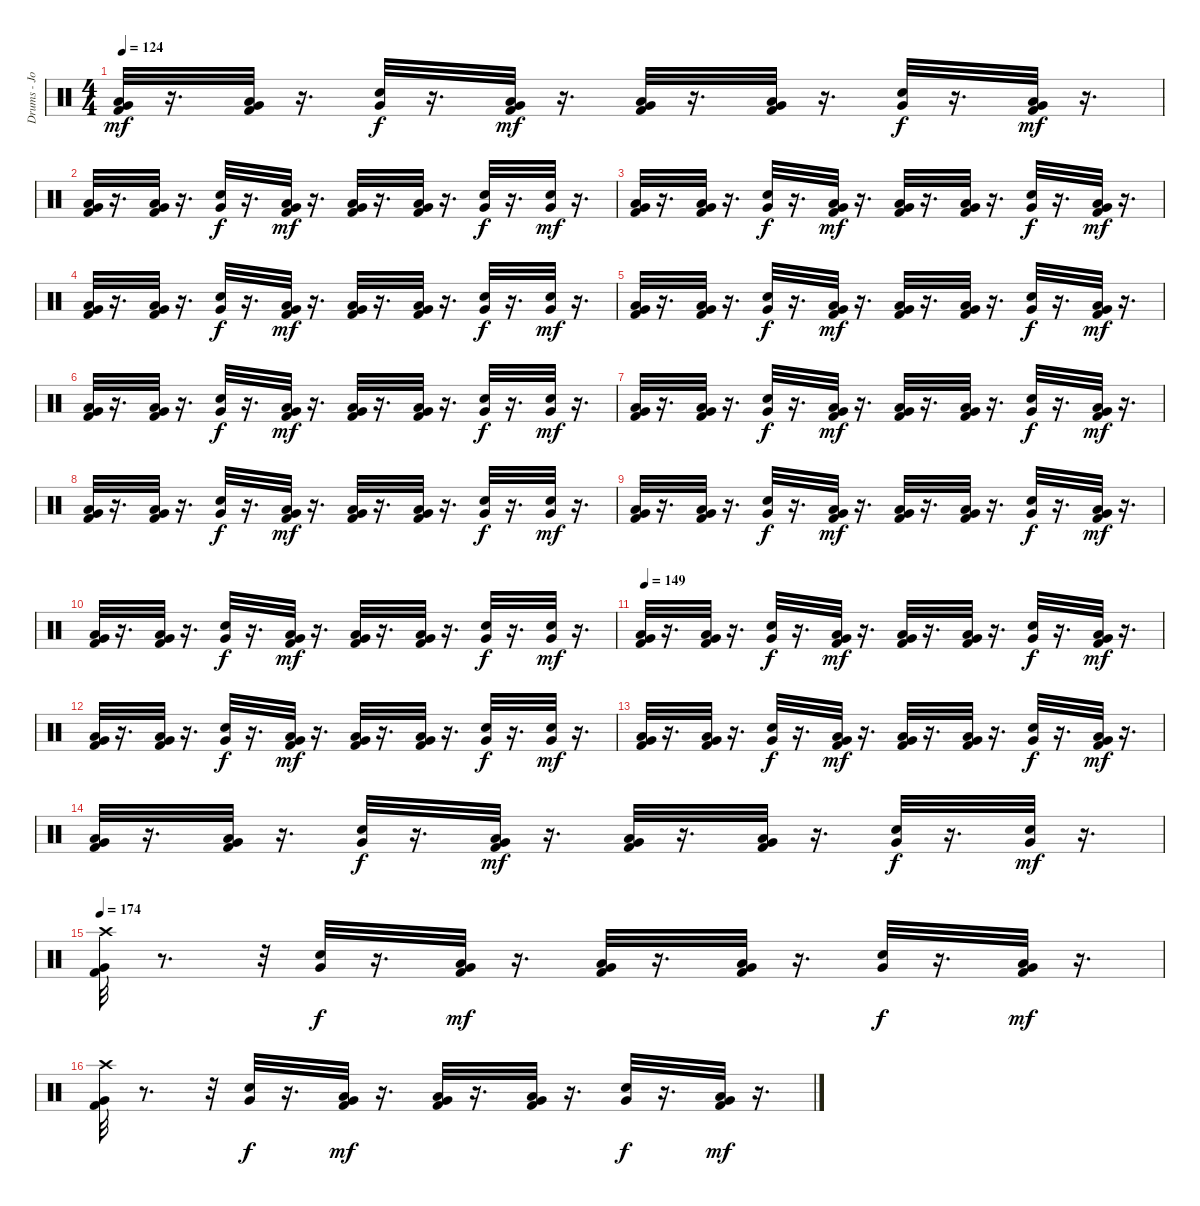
\track ("Drums - John dette" "Drums - Jo") {instrument percussion}
\staff {score}
\articulation defaults
\ts (4 4)
\tempo 124
\clef neutral
\ks c
("Kick (hit) 2" "Low Floor Tom (hit)" "Very Low Tom (hit)").32{dy mf} r.16{d} ("Kick (hit) 2" "Low Floor Tom (hit)" "Very Low Tom (hit)").32 r.16{d} ("Snare (hit) 2" "Very Low Tom (hit)").32{dy f} r.16{d} ("Kick (hit) 2" "Low Floor Tom (hit)" "Very Low Tom (hit)").32{dy mf} r.16{d} ("Kick (hit) 2" "Low Floor Tom (hit)" "Very Low Tom (hit)").32 r.16{d} ("Kick (hit) 2" "Low Floor Tom (hit)" "Very Low Tom (hit)").32 r.16{d} ("Snare (hit) 2" "Very Low Tom (hit)").32{dy f} r.16{d} ("Kick (hit) 2" "Low Floor Tom (hit)" "Very Low Tom (hit)").32{dy mf} r.16{d} |
("Kick (hit) 2" "Low Floor Tom (hit)" "Very Low Tom (hit)").32 r.16{d} ("Kick (hit) 2" "Low Floor Tom (hit)" "Very Low Tom (hit)").32 r.16{d} ("Snare (hit) 2" "Very Low Tom (hit)").32{dy f} r.16{d} ("Kick (hit) 2" "Low Floor Tom (hit)" "Very Low Tom (hit)").32{dy mf} r.16{d} ("Kick (hit) 2" "Low Floor Tom (hit)" "Very Low Tom (hit)").32 r.16{d} ("Kick (hit) 2" "Low Floor Tom (hit)" "Very Low Tom (hit)").32 r.16{d} ("Snare (hit) 2" "Very Low Tom (hit)").32{dy f} r.16{d} ("Snare (hit) 2" "Very Low Tom (hit)").32{dy mf} r.16{d} |
("Kick (hit) 2" "Low Floor Tom (hit)" "Very Low Tom (hit)").32 r.16{d} ("Kick (hit) 2" "Low Floor Tom (hit)" "Very Low Tom (hit)").32 r.16{d} ("Snare (hit) 2" "Very Low Tom (hit)").32{dy f} r.16{d} ("Kick (hit) 2" "Low Floor Tom (hit)" "Very Low Tom (hit)").32{dy mf} r.16{d} ("Kick (hit) 2" "Low Floor Tom (hit)" "Very Low Tom (hit)").32 r.16{d} ("Kick (hit) 2" "Low Floor Tom (hit)" "Very Low Tom (hit)").32 r.16{d} ("Snare (hit) 2" "Very Low Tom (hit)").32{dy f} r.16{d} ("Kick (hit) 2" "Low Floor Tom (hit)" "Very Low Tom (hit)").32{dy mf} r.16{d} |
("Kick (hit) 2" "Low Floor Tom (hit)" "Very Low Tom (hit)").32 r.16{d} ("Kick (hit) 2" "Low Floor Tom (hit)" "Very Low Tom (hit)").32 r.16{d} ("Snare (hit) 2" "Very Low Tom (hit)").32{dy f} r.16{d} ("Kick (hit) 2" "Low Floor Tom (hit)" "Very Low Tom (hit)").32{dy mf} r.16{d} ("Kick (hit) 2" "Low Floor Tom (hit)" "Very Low Tom (hit)").32 r.16{d} ("Kick (hit) 2" "Low Floor Tom (hit)" "Very Low Tom (hit)").32 r.16{d} ("Snare (hit) 2" "Very Low Tom (hit)").32{dy f} r.16{d} ("Snare (hit) 2" "Very Low Tom (hit)").32{dy mf} r.16{d} |
("Kick (hit) 2" "Low Floor Tom (hit)" "Very Low Tom (hit)").32 r.16{d} ("Kick (hit) 2" "Low Floor Tom (hit)" "Very Low Tom (hit)").32 r.16{d} ("Snare (hit) 2" "Very Low Tom (hit)").32{dy f} r.16{d} ("Kick (hit) 2" "Low Floor Tom (hit)" "Very Low Tom (hit)").32{dy mf} r.16{d} ("Kick (hit) 2" "Low Floor Tom (hit)" "Very Low Tom (hit)").32 r.16{d} ("Kick (hit) 2" "Low Floor Tom (hit)" "Very Low Tom (hit)").32 r.16{d} ("Snare (hit) 2" "Very Low Tom (hit)").32{dy f} r.16{d} ("Kick (hit) 2" "Low Floor Tom (hit)" "Very Low Tom (hit)").32{dy mf} r.16{d} |
("Kick (hit) 2" "Low Floor Tom (hit)" "Very Low Tom (hit)").32 r.16{d} ("Kick (hit) 2" "Low Floor Tom (hit)" "Very Low Tom (hit)").32 r.16{d} ("Snare (hit) 2" "Very Low Tom (hit)").32{dy f} r.16{d} ("Kick (hit) 2" "Low Floor Tom (hit)" "Very Low Tom (hit)").32{dy mf} r.16{d} ("Kick (hit) 2" "Low Floor Tom (hit)" "Very Low Tom (hit)").32 r.16{d} ("Kick (hit) 2" "Low Floor Tom (hit)" "Very Low Tom (hit)").32 r.16{d} ("Snare (hit) 2" "Very Low Tom (hit)").32{dy f} r.16{d} ("Snare (hit) 2" "Very Low Tom (hit)").32{dy mf} r.16{d} |
("Kick (hit) 2" "Low Floor Tom (hit)" "Very Low Tom (hit)").32 r.16{d} ("Kick (hit) 2" "Low Floor Tom (hit)" "Very Low Tom (hit)").32 r.16{d} ("Snare (hit) 2" "Very Low Tom (hit)").32{dy f} r.16{d} ("Kick (hit) 2" "Low Floor Tom (hit)" "Very Low Tom (hit)").32{dy mf} r.16{d} ("Kick (hit) 2" "Low Floor Tom (hit)" "Very Low Tom (hit)").32 r.16{d} ("Kick (hit) 2" "Low Floor Tom (hit)" "Very Low Tom (hit)").32 r.16{d} ("Snare (hit) 2" "Very Low Tom (hit)").32{dy f} r.16{d} ("Kick (hit) 2" "Low Floor Tom (hit)" "Very Low Tom (hit)").32{dy mf} r.16{d} |
("Kick (hit) 2" "Low Floor Tom (hit)" "Very Low Tom (hit)").32 r.16{d} ("Kick (hit) 2" "Low Floor Tom (hit)" "Very Low Tom (hit)").32 r.16{d} ("Snare (hit) 2" "Very Low Tom (hit)").32{dy f} r.16{d} ("Kick (hit) 2" "Low Floor Tom (hit)" "Very Low Tom (hit)").32{dy mf} r.16{d} ("Kick (hit) 2" "Low Floor Tom (hit)" "Very Low Tom (hit)").32 r.16{d} ("Kick (hit) 2" "Low Floor Tom (hit)" "Very Low Tom (hit)").32 r.16{d} ("Snare (hit) 2" "Very Low Tom (hit)").32{dy f} r.16{d} ("Snare (hit) 2" "Very Low Tom (hit)").32{dy mf} r.16{d} |
("Kick (hit) 2" "Low Floor Tom (hit)" "Very Low Tom (hit)").32 r.16{d} ("Kick (hit) 2" "Low Floor Tom (hit)" "Very Low Tom (hit)").32 r.16{d} ("Snare (hit) 2" "Very Low Tom (hit)").32{dy f} r.16{d} ("Kick (hit) 2" "Low Floor Tom (hit)" "Very Low Tom (hit)").32{dy mf} r.16{d} ("Kick (hit) 2" "Low Floor Tom (hit)" "Very Low Tom (hit)").32 r.16{d} ("Kick (hit) 2" "Low Floor Tom (hit)" "Very Low Tom (hit)").32 r.16{d} ("Snare (hit) 2" "Very Low Tom (hit)").32{dy f} r.16{d} ("Kick (hit) 2" "Low Floor Tom (hit)" "Very Low Tom (hit)").32{dy mf} r.16{d} |
("Kick (hit) 2" "Low Floor Tom (hit)" "Very Low Tom (hit)").32 r.16{d} ("Kick (hit) 2" "Low Floor Tom (hit)" "Very Low Tom (hit)").32 r.16{d} ("Snare (hit) 2" "Very Low Tom (hit)").32{dy f} r.16{d} ("Kick (hit) 2" "Low Floor Tom (hit)" "Very Low Tom (hit)").32{dy mf} r.16{d} ("Kick (hit) 2" "Low Floor Tom (hit)" "Very Low Tom (hit)").32 r.16{d} ("Kick (hit) 2" "Low Floor Tom (hit)" "Very Low Tom (hit)").32 r.16{d} ("Snare (hit) 2" "Very Low Tom (hit)").32{dy f} r.16{d} ("Snare (hit) 2" "Very Low Tom (hit)").32{dy mf} r.16{d} |
\tempo 149
("Kick (hit) 2" "Low Floor Tom (hit)" "Very Low Tom (hit)").32 r.16{d} ("Kick (hit) 2" "Low Floor Tom (hit)" "Very Low Tom (hit)").32 r.16{d} ("Snare (hit) 2" "Very Low Tom (hit)").32{dy f} r.16{d} ("Kick (hit) 2" "Low Floor Tom (hit)" "Very Low Tom (hit)").32{dy mf} r.16{d} ("Kick (hit) 2" "Low Floor Tom (hit)" "Very Low Tom (hit)").32 r.16{d} ("Kick (hit) 2" "Low Floor Tom (hit)" "Very Low Tom (hit)").32 r.16{d} ("Snare (hit) 2" "Very Low Tom (hit)").32{dy f} r.16{d} ("Kick (hit) 2" "Low Floor Tom (hit)" "Very Low Tom (hit)").32{dy mf} r.16{d} |
("Kick (hit) 2" "Low Floor Tom (hit)" "Very Low Tom (hit)").32 r.16{d} ("Kick (hit) 2" "Low Floor Tom (hit)" "Very Low Tom (hit)").32 r.16{d} ("Snare (hit) 2" "Very Low Tom (hit)").32{dy f} r.16{d} ("Kick (hit) 2" "Low Floor Tom (hit)" "Very Low Tom (hit)").32{dy mf} r.16{d} ("Kick (hit) 2" "Low Floor Tom (hit)" "Very Low Tom (hit)").32 r.16{d} ("Kick (hit) 2" "Low Floor Tom (hit)" "Very Low Tom (hit)").32 r.16{d} ("Snare (hit) 2" "Very Low Tom (hit)").32{dy f} r.16{d} ("Snare (hit) 2" "Very Low Tom (hit)").32{dy mf} r.16{d} |
("Kick (hit) 2" "Low Floor Tom (hit)" "Very Low Tom (hit)").32 r.16{d} ("Kick (hit) 2" "Low Floor Tom (hit)" "Very Low Tom (hit)").32 r.16{d} ("Snare (hit) 2" "Very Low Tom (hit)").32{dy f} r.16{d} ("Kick (hit) 2" "Low Floor Tom (hit)" "Very Low Tom (hit)").32{dy mf} r.16{d} ("Kick (hit) 2" "Low Floor Tom (hit)" "Very Low Tom (hit)").32 r.16{d} ("Kick (hit) 2" "Low Floor Tom (hit)" "Very Low Tom (hit)").32 r.16{d} ("Snare (hit) 2" "Very Low Tom (hit)").32{dy f} r.16{d} ("Kick (hit) 2" "Low Floor Tom (hit)" "Very Low Tom (hit)").32{dy mf} r.16{d} |
("Kick (hit) 2" "Low Floor Tom (hit)" "Very Low Tom (hit)").32 r.16{d} ("Kick (hit) 2" "Low Floor Tom (hit)" "Very Low Tom (hit)").32 r.16{d} ("Snare (hit) 2" "Very Low Tom (hit)").32{dy f} r.16{d} ("Kick (hit) 2" "Low Floor Tom (hit)" "Very Low Tom (hit)").32{dy mf} r.16{d} ("Kick (hit) 2" "Low Floor Tom (hit)" "Very Low Tom (hit)").32 r.16{d} ("Kick (hit) 2" "Low Floor Tom (hit)" "Very Low Tom (hit)").32 r.16{d} ("Snare (hit) 2" "Very Low Tom (hit)").32{dy f} r.16{d} ("Snare (hit) 2" "Very Low Tom (hit)").32{dy mf} r.16{d} |
\tempo 174
("Kick (hit) 2" "Very Low Tom (hit)" "Crash high (hit)").32 r.8{d} r.32 ("Snare (hit) 2" "Very Low Tom (hit)").32{dy f} r.16{d} ("Kick (hit) 2" "Low Floor Tom (hit)" "Very Low Tom (hit)").32{dy mf} r.16{d} ("Kick (hit) 2" "Low Floor Tom (hit)" "Very Low Tom (hit)").32 r.16{d} ("Kick (hit) 2" "Low Floor Tom (hit)" "Very Low Tom (hit)").32 r.16{d} ("Snare (hit) 2" "Very Low Tom (hit)").32{dy f} r.16{d} ("Kick (hit) 2" "Low Floor Tom (hit)" "Very Low Tom (hit)").32{dy mf} r.16{d} |
("Kick (hit) 2" "Very Low Tom (hit)" "Crash high (hit)").32 r.8{d} r.32 ("Snare (hit) 2" "Very Low Tom (hit)").32{dy f} r.16{d} ("Kick (hit) 2" "Low Floor Tom (hit)" "Very Low Tom (hit)").32{dy mf} r.16{d} ("Kick (hit) 2" "Low Floor Tom (hit)" "Very Low Tom (hit)").32 r.16{d} ("Kick (hit) 2" "Low Floor Tom (hit)" "Very Low Tom (hit)").32 r.16{d} ("Snare (hit) 2" "Very Low Tom (hit)").32{dy f} r.16{d} ("Kick (hit) 2" "Low Floor Tom (hit)" "Very Low Tom (hit)").32{dy mf} r.16{d}
